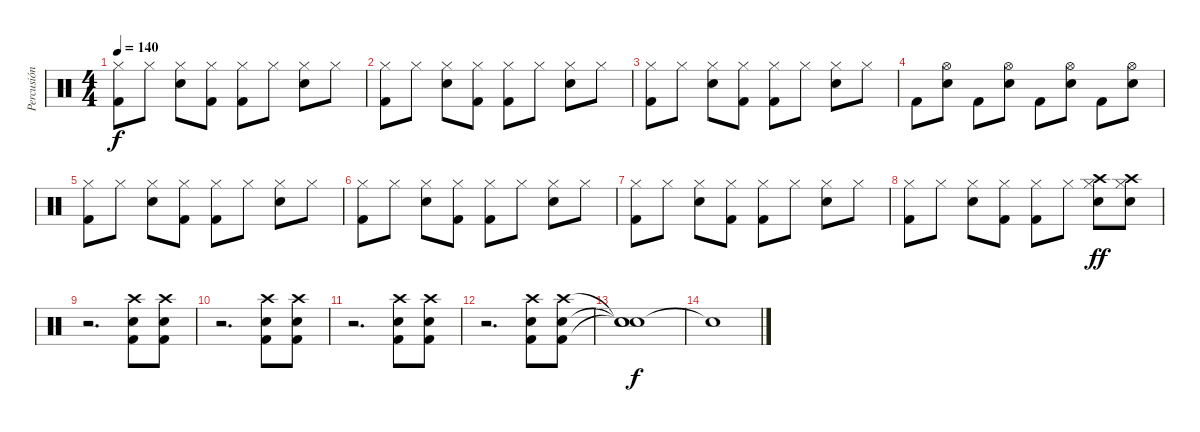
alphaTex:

\track ("Percusión" "Percusión") {instrument percussion}
\staff {score}
\articulation defaults
\ts (4 4)
\tempo 140
\clef neutral
\ks c
("Hi-Hat (closed)" "Kick (hit) 2").8{dy f} "Hi-Hat (closed)".8 ("Hi-Hat (closed)" "Snare (hit) 2").8 ("Hi-Hat (closed)" "Kick (hit) 2").8 ("Hi-Hat (closed)" "Kick (hit) 2").8 "Hi-Hat (closed)".8 ("Hi-Hat (closed)" "Snare (hit) 2").8 "Hi-Hat (closed)".8 |
("Hi-Hat (closed)" "Kick (hit) 2").8 "Hi-Hat (closed)".8 ("Hi-Hat (closed)" "Snare (hit) 2").8 ("Hi-Hat (closed)" "Kick (hit) 2").8 ("Hi-Hat (closed)" "Kick (hit) 2").8 "Hi-Hat (closed)".8 ("Hi-Hat (closed)" "Snare (hit) 2").8 "Hi-Hat (closed)".8 |
("Hi-Hat (closed)" "Kick (hit) 2").8 "Hi-Hat (closed)".8 ("Hi-Hat (closed)" "Snare (hit) 2").8 ("Hi-Hat (closed)" "Kick (hit) 2").8 ("Hi-Hat (closed)" "Kick (hit) 2").8 "Hi-Hat (closed)".8 ("Hi-Hat (closed)" "Snare (hit) 2").8 "Hi-Hat (closed)".8 |
"Kick (hit) 2".8 ("Hi-Hat (open)" "Snare (hit) 2").8 "Kick (hit) 2".8 ("Hi-Hat (open)" "Snare (hit) 2").8 "Kick (hit) 2".8 ("Hi-Hat (open)" "Snare (hit) 2").8 "Kick (hit) 2".8 ("Hi-Hat (open)" "Snare (hit) 2").8 |
("Hi-Hat (closed)" "Kick (hit) 2").8 "Hi-Hat (closed)".8 ("Hi-Hat (closed)" "Snare (hit) 2").8 ("Hi-Hat (closed)" "Kick (hit) 2").8 ("Hi-Hat (closed)" "Kick (hit) 2").8 "Hi-Hat (closed)".8 ("Hi-Hat (closed)" "Snare (hit) 2").8 "Hi-Hat (closed)".8 |
("Hi-Hat (closed)" "Kick (hit) 2").8 "Hi-Hat (closed)".8 ("Hi-Hat (closed)" "Snare (hit) 2").8 ("Hi-Hat (closed)" "Kick (hit) 2").8 ("Hi-Hat (closed)" "Kick (hit) 2").8 "Hi-Hat (closed)".8 ("Hi-Hat (closed)" "Snare (hit) 2").8 "Hi-Hat (closed)".8 |
("Hi-Hat (closed)" "Kick (hit) 2").8 "Hi-Hat (closed)".8 ("Hi-Hat (closed)" "Snare (hit) 2").8 ("Hi-Hat (closed)" "Kick (hit) 2").8 ("Hi-Hat (closed)" "Kick (hit) 2").8 "Hi-Hat (closed)".8 ("Hi-Hat (closed)" "Snare (hit) 2").8 "Hi-Hat (closed)".8 |
("Hi-Hat (closed)" "Kick (hit) 2").8 "Hi-Hat (closed)".8 ("Hi-Hat (closed)" "Snare (hit) 2").8 ("Hi-Hat (closed)" "Kick (hit) 2").8 ("Hi-Hat (closed)" "Kick (hit) 2").8 "Hi-Hat (closed)".8 ("Crash high (hit)" "Hi-Hat (closed)" "Snare (hit) 2").8{dy ff} ("Crash high (hit)" "Hi-Hat (closed)" "Snare (hit) 2").8 |
r.2{d} ("Crash high (hit)" "Snare (hit) 2" "Kick (hit) 2").8 ("Crash high (hit)" "Snare (hit) 2" "Kick (hit) 2").8 |
r.2{d} ("Crash high (hit)" "Snare (hit) 2" "Kick (hit) 2").8 ("Crash high (hit)" "Snare (hit) 2" "Kick (hit) 2").8 |
r.2{d} ("Crash high (hit)" "Snare (hit) 2" "Kick (hit) 2").8 ("Crash high (hit)" "Snare (hit) 2" "Kick (hit) 2").8 |
r.2{d} ("Crash high (hit)" "Snare (hit) 2" "Kick (hit) 2").8 ("Crash high (hit)" "Snare (hit) 2" "Kick (hit) 2").8 |
("Snare (hit)"{t} "Snare (hit)"{t} "Snare (hit)"{t}).1{dy f} |
"Snare (hit)"{t}.1
